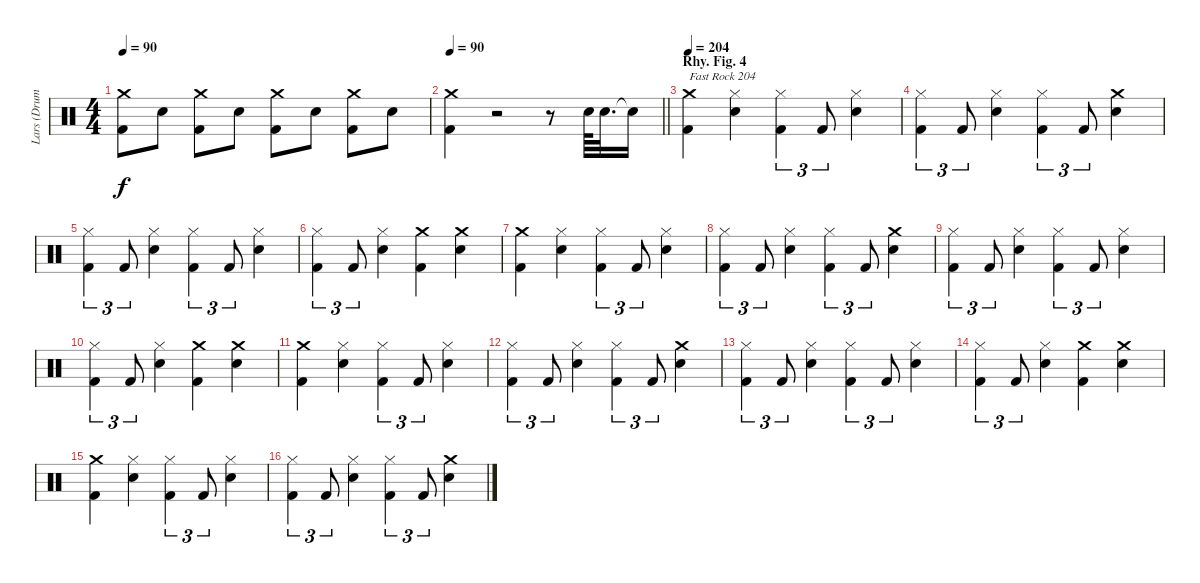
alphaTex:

\track ("Lars (Drums)" "Lars (Drum") {instrument percussion}
\staff {score}
\articulation defaults
\ts (4 4)
\tempo 90
\clef neutral
\ks c
("Kick (hit) 2" "Crash medium (hit)").8{dy f} "Snare (hit) 2".8 ("Kick (hit) 2" "Crash medium (hit)").8 "Snare (hit) 2".8 ("Kick (hit) 2" "Crash medium (hit)").8 "Snare (hit) 2".8 ("Kick (hit) 2" "Crash medium (hit)").8 "Snare (hit) 2".8 |
\tempo 90
\barLineRight lightlight
("Kick (hit) 2" "Crash medium (hit)").4 r.2 r.8 "Snare (hit) 2".64 "Snare (hit) 2".32{d} "Snare (hit)"{t}.16 |
\section ("" "Rhy. Fig. 4")
\tempo 204
("Kick (hit) 2" "Crash medium (hit)").4{txt "Fast Rock 204"} ("Hi-Hat (closed)" "Snare (hit) 2").4 ("Hi-Hat (closed)" "Kick (hit) 2").4{tu (3 2)} "Kick (hit) 2".8{tu (3 2)} ("Snare (hit) 2" "Hi-Hat (closed)").4 |
("Hi-Hat (closed)" "Kick (hit) 2").4{tu (3 2)} "Kick (hit) 2".8{tu (3 2)} ("Snare (hit) 2" "Hi-Hat (closed)").4 ("Hi-Hat (closed)" "Kick (hit) 2").4{tu (3 2)} "Kick (hit) 2".8{tu (3 2)} ("Crash medium (hit)" "Snare (hit) 2").4 |
("Hi-Hat (closed)" "Kick (hit) 2").4{tu (3 2)} "Kick (hit) 2".8{tu (3 2)} ("Snare (hit) 2" "Hi-Hat (closed)").4 ("Hi-Hat (closed)" "Kick (hit) 2").4{tu (3 2)} "Kick (hit) 2".8{tu (3 2)} ("Snare (hit) 2" "Hi-Hat (closed)").4 |
("Hi-Hat (closed)" "Kick (hit) 2").4{tu (3 2)} "Kick (hit) 2".8{tu (3 2)} ("Snare (hit) 2" "Hi-Hat (closed)").4 ("Crash medium (hit)" "Kick (hit) 2").4 ("Crash medium (hit)" "Snare (hit) 2").4 |
("Kick (hit) 2" "Crash medium (hit)").4 ("Hi-Hat (closed)" "Snare (hit) 2").4 ("Hi-Hat (closed)" "Kick (hit) 2").4{tu (3 2)} "Kick (hit) 2".8{tu (3 2)} ("Snare (hit) 2" "Hi-Hat (closed)").4 |
("Hi-Hat (closed)" "Kick (hit) 2").4{tu (3 2)} "Kick (hit) 2".8{tu (3 2)} ("Snare (hit) 2" "Hi-Hat (closed)").4 ("Hi-Hat (closed)" "Kick (hit) 2").4{tu (3 2)} "Kick (hit) 2".8{tu (3 2)} ("Crash medium (hit)" "Snare (hit) 2").4 |
("Hi-Hat (closed)" "Kick (hit) 2").4{tu (3 2)} "Kick (hit) 2".8{tu (3 2)} ("Snare (hit) 2" "Hi-Hat (closed)").4 ("Hi-Hat (closed)" "Kick (hit) 2").4{tu (3 2)} "Kick (hit) 2".8{tu (3 2)} ("Snare (hit) 2" "Hi-Hat (closed)").4 |
("Hi-Hat (closed)" "Kick (hit) 2").4{tu (3 2)} "Kick (hit) 2".8{tu (3 2)} ("Snare (hit) 2" "Hi-Hat (closed)").4 ("Crash medium (hit)" "Kick (hit) 2").4 ("Crash medium (hit)" "Snare (hit) 2").4 |
("Kick (hit) 2" "Crash medium (hit)").4 ("Hi-Hat (closed)" "Snare (hit) 2").4 ("Hi-Hat (closed)" "Kick (hit) 2").4{tu (3 2)} "Kick (hit) 2".8{tu (3 2)} ("Snare (hit) 2" "Hi-Hat (closed)").4 |
("Hi-Hat (closed)" "Kick (hit) 2").4{tu (3 2)} "Kick (hit) 2".8{tu (3 2)} ("Snare (hit) 2" "Hi-Hat (closed)").4 ("Hi-Hat (closed)" "Kick (hit) 2").4{tu (3 2)} "Kick (hit) 2".8{tu (3 2)} ("Crash medium (hit)" "Snare (hit) 2").4 |
("Hi-Hat (closed)" "Kick (hit) 2").4{tu (3 2)} "Kick (hit) 2".8{tu (3 2)} ("Snare (hit) 2" "Hi-Hat (closed)").4 ("Hi-Hat (closed)" "Kick (hit) 2").4{tu (3 2)} "Kick (hit) 2".8{tu (3 2)} ("Snare (hit) 2" "Hi-Hat (closed)").4 |
("Hi-Hat (closed)" "Kick (hit) 2").4{tu (3 2)} "Kick (hit) 2".8{tu (3 2)} ("Snare (hit) 2" "Hi-Hat (closed)").4 ("Crash medium (hit)" "Kick (hit) 2").4 ("Crash medium (hit)" "Snare (hit) 2").4 |
("Kick (hit) 2" "Crash medium (hit)").4 ("Hi-Hat (closed)" "Snare (hit) 2").4 ("Hi-Hat (closed)" "Kick (hit) 2").4{tu (3 2)} "Kick (hit) 2".8{tu (3 2)} ("Snare (hit) 2" "Hi-Hat (closed)").4 |
("Hi-Hat (closed)" "Kick (hit) 2").4{tu (3 2)} "Kick (hit) 2".8{tu (3 2)} ("Snare (hit) 2" "Hi-Hat (closed)").4 ("Hi-Hat (closed)" "Kick (hit) 2").4{tu (3 2)} "Kick (hit) 2".8{tu (3 2)} ("Crash medium (hit)" "Snare (hit) 2").4
